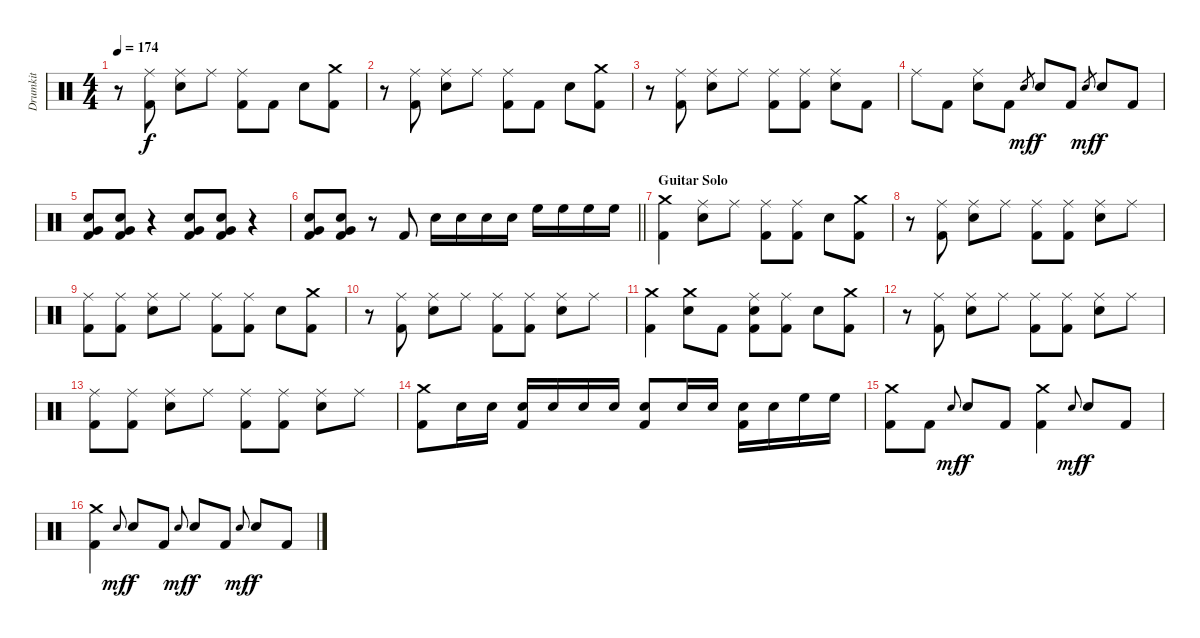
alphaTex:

\track ("Drumkit" "Drumkit") {instrument percussion}
\staff {score}
\articulation defaults
\ts (4 4)
\tempo 174
\clef neutral
\ks c
r.8{dy f} ("Ride (middle)" "Kick (hit) 2").8 ("Ride (middle)" "Snare (hit) 2").8 "Ride (middle)".8 ("Ride (middle)" "Kick (hit) 2").8 "Kick (hit) 2".8 "Snare (hit) 2".8 ("Crash medium (hit)" "Kick (hit) 2").8 |
r.8 ("Ride (middle)" "Kick (hit) 2").8 ("Ride (middle)" "Snare (hit) 2").8 "Ride (middle)".8 ("Ride (middle)" "Kick (hit) 2").8 "Kick (hit) 2".8 "Snare (hit) 2".8 ("Crash medium (hit)" "Kick (hit) 2").8 |
r.8 ("Ride (middle)" "Kick (hit) 2").8 ("Ride (middle)" "Snare (hit) 2").8 "Ride (middle)".8 ("Ride (middle)" "Kick (hit) 2").8 ("Ride (middle)" "Kick (hit) 2").8 ("Ride (middle)" "Snare (hit) 2").8 "Kick (hit) 2".8 |
"Ride (middle)".8 "Kick (hit) 2".8 ("Ride (middle)" "Snare (hit) 2").8 "Kick (hit) 2".8 "Snare (hit)".8{gr dy mf} "Snare (hit) 2".8{dy f} "Kick (hit) 2".8 "Snare (hit)".8{gr dy mf} "Snare (hit) 2".8{dy f} "Kick (hit) 2".8 |
("Snare (hit) 2" "Very Low Tom (hit)" "Kick (hit) 2").8 ("Snare (hit) 2" "Very Low Tom (hit)" "Kick (hit) 2").8 r.4 ("Snare (hit) 2" "Very Low Tom (hit)" "Kick (hit) 2").8 ("Snare (hit) 2" "Very Low Tom (hit)" "Kick (hit) 2").8 r.4 |
\barLineRight lightlight
("Snare (hit) 2" "Very Low Tom (hit)" "Kick (hit) 2").8 ("Snare (hit) 2" "Very Low Tom (hit)" "Kick (hit) 2").8 r.8 "Kick (hit) 2".8 "Snare (hit) 2".16 "Snare (hit) 2".16 "Snare (hit) 2".16 "Snare (hit) 2".16 "High Floor Tom (hit)".16 "High Floor Tom (hit)".16 "High Floor Tom (hit)".16 "High Floor Tom (hit)".16 |
\section ("" "Guitar Solo")
("Crash medium (hit)" "Kick (hit) 2").4 ("Ride (middle)" "Snare (hit) 2").8 "Ride (middle)".8 ("Ride (middle)" "Kick (hit) 2").8 ("Ride (middle)" "Kick (hit) 2").8 "Snare (hit) 2".8 ("Crash medium (hit)" "Kick (hit) 2").8 |
r.8 ("Ride (middle)" "Kick (hit) 2").8 ("Ride (middle)" "Snare (hit) 2").8 "Ride (middle)".8 ("Ride (middle)" "Kick (hit) 2").8 ("Ride (middle)" "Kick (hit) 2").8 ("Ride (middle)" "Snare (hit) 2").8 "Ride (middle)".8 |
("Ride (middle)" "Kick (hit) 2").8 ("Ride (middle)" "Kick (hit) 2").8 ("Ride (middle)" "Snare (hit) 2").8 "Ride (middle)".8 ("Ride (middle)" "Kick (hit) 2").8 ("Ride (middle)" "Kick (hit) 2").8 "Snare (hit) 2".8 ("Crash medium (hit)" "Kick (hit) 2").8 |
r.8 ("Ride (middle)" "Kick (hit) 2").8 ("Ride (middle)" "Snare (hit) 2").8 "Ride (middle)".8 ("Ride (middle)" "Kick (hit) 2").8 ("Ride (middle)" "Kick (hit) 2").8 ("Ride (middle)" "Snare (hit) 2").8 "Ride (middle)".8 |
("Crash medium (hit)" "Kick (hit) 2").4 ("Crash medium (hit)" "Snare (hit) 2").8 "Kick (hit) 2".8 ("Ride (middle)" "Snare (hit) 2" "Kick (hit) 2").8 ("Ride (middle)" "Kick (hit) 2").8 "Snare (hit) 2".8 ("Crash medium (hit)" "Kick (hit) 2").8 |
r.8 ("Ride (middle)" "Kick (hit) 2").8 ("Ride (middle)" "Snare (hit) 2").8 "Ride (middle)".8 ("Ride (middle)" "Kick (hit) 2").8 ("Ride (middle)" "Kick (hit) 2").8 ("Ride (middle)" "Snare (hit) 2").8 "Ride (middle)".8 |
("Ride (middle)" "Kick (hit) 2").8 ("Ride (middle)" "Kick (hit) 2").8 ("Ride (middle)" "Snare (hit) 2").8 "Ride (middle)".8 ("Ride (middle)" "Kick (hit) 2").8 ("Ride (middle)" "Kick (hit) 2").8 ("Ride (middle)" "Snare (hit) 2").8 "Ride (middle)".8 |
("Crash medium (hit)" "Kick (hit) 2").8 "Snare (hit) 2".16 "Snare (hit) 2".16 ("Snare (hit) 2" "Kick (hit) 2").16 "Snare (hit) 2".16 "Snare (hit) 2".16 "Snare (hit) 2".16 ("Snare (hit) 2" "Kick (hit) 2").8 "Snare (hit) 2".16 "Snare (hit) 2".16 ("Snare (hit) 2" "Kick (hit) 2").16 "Snare (hit) 2".16 "High Floor Tom (hit)".16 "High Floor Tom (hit)".16 |
("Crash medium (hit)" "Kick (hit) 2").8 "Kick (hit) 2".8 "Snare (hit)".8{gr onbeat dy mf} "Snare (hit) 2".8{dy f} "Kick (hit) 2".8 ("Crash medium (hit)" "Kick (hit) 2").4 "Snare (hit)".8{gr onbeat dy mf} "Snare (hit) 2".8{dy f} "Kick (hit) 2".8 |
("Crash medium (hit)" "Kick (hit) 2").4 "Snare (hit)".8{gr onbeat dy mf} "Snare (hit) 2".8{dy f} "Kick (hit) 2".8 "Snare (hit)".8{gr onbeat dy mf} "Snare (hit) 2".8{dy f} "Kick (hit) 2".8 "Snare (hit)".8{gr onbeat dy mf} "Snare (hit) 2".8{dy f} "Kick (hit) 2".8
